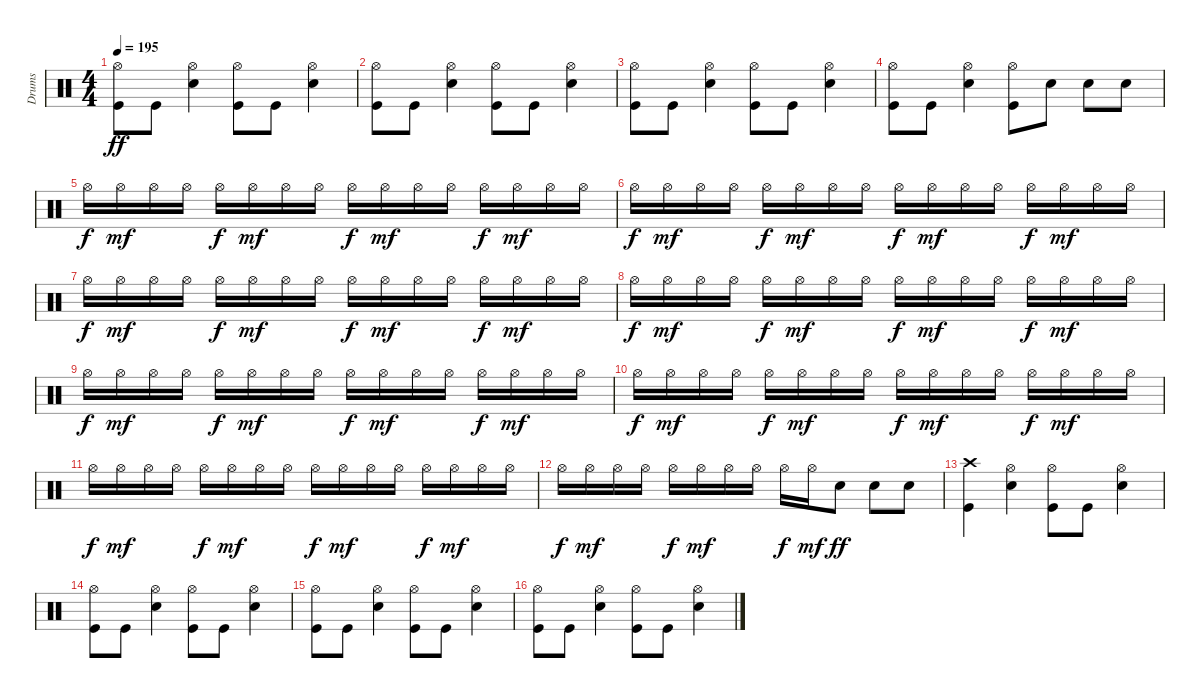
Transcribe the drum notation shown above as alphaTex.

\track ("Drums" "Drums") {instrument percussion}
\staff {score}
\articulation defaults
\ts (4 4)
\tempo 195
\clef neutral
\ks c
("Hi-Hat (open)" "Kick (hit)").8{dy ff} "Kick (hit)".8 ("Hi-Hat (open)" "Snare (hit) 2").4 ("Hi-Hat (open)" "Kick (hit)").8 "Kick (hit)".8 ("Hi-Hat (open)" "Snare (hit) 2").4 |
("Hi-Hat (open)" "Kick (hit)").8 "Kick (hit)".8 ("Hi-Hat (open)" "Snare (hit) 2").4 ("Hi-Hat (open)" "Kick (hit)").8 "Kick (hit)".8 ("Hi-Hat (open)" "Snare (hit) 2").4 |
("Hi-Hat (open)" "Kick (hit)").8 "Kick (hit)".8 ("Hi-Hat (open)" "Snare (hit) 2").4 ("Hi-Hat (open)" "Kick (hit)").8 "Kick (hit)".8 ("Hi-Hat (open)" "Snare (hit) 2").4 |
("Hi-Hat (open)" "Kick (hit)").8 "Kick (hit)".8 ("Hi-Hat (open)" "Snare (hit) 2").4 ("Hi-Hat (open)" "Kick (hit)").8 "Snare (hit) 2".8 "Snare (hit) 2".8 "Snare (hit) 2".8 |
"Hi-Hat (open)".16{dy f} "Hi-Hat (open)".16{dy mf} "Hi-Hat (open)".16 "Hi-Hat (open)".16 "Hi-Hat (open)".16{dy f} "Hi-Hat (open)".16{dy mf} "Hi-Hat (open)".16 "Hi-Hat (open)".16 "Hi-Hat (open)".16{dy f} "Hi-Hat (open)".16{dy mf} "Hi-Hat (open)".16 "Hi-Hat (open)".16 "Hi-Hat (open)".16{dy f} "Hi-Hat (open)".16{dy mf} "Hi-Hat (open)".16 "Hi-Hat (open)".16 |
"Hi-Hat (open)".16{dy f} "Hi-Hat (open)".16{dy mf} "Hi-Hat (open)".16 "Hi-Hat (open)".16 "Hi-Hat (open)".16{dy f} "Hi-Hat (open)".16{dy mf} "Hi-Hat (open)".16 "Hi-Hat (open)".16 "Hi-Hat (open)".16{dy f} "Hi-Hat (open)".16{dy mf} "Hi-Hat (open)".16 "Hi-Hat (open)".16 "Hi-Hat (open)".16{dy f} "Hi-Hat (open)".16{dy mf} "Hi-Hat (open)".16 "Hi-Hat (open)".16 |
"Hi-Hat (open)".16{dy f} "Hi-Hat (open)".16{dy mf} "Hi-Hat (open)".16 "Hi-Hat (open)".16 "Hi-Hat (open)".16{dy f} "Hi-Hat (open)".16{dy mf} "Hi-Hat (open)".16 "Hi-Hat (open)".16 "Hi-Hat (open)".16{dy f} "Hi-Hat (open)".16{dy mf} "Hi-Hat (open)".16 "Hi-Hat (open)".16 "Hi-Hat (open)".16{dy f} "Hi-Hat (open)".16{dy mf} "Hi-Hat (open)".16 "Hi-Hat (open)".16 |
"Hi-Hat (open)".16{dy f} "Hi-Hat (open)".16{dy mf} "Hi-Hat (open)".16 "Hi-Hat (open)".16 "Hi-Hat (open)".16{dy f} "Hi-Hat (open)".16{dy mf} "Hi-Hat (open)".16 "Hi-Hat (open)".16 "Hi-Hat (open)".16{dy f} "Hi-Hat (open)".16{dy mf} "Hi-Hat (open)".16 "Hi-Hat (open)".16 "Hi-Hat (open)".16{dy f} "Hi-Hat (open)".16{dy mf} "Hi-Hat (open)".16 "Hi-Hat (open)".16 |
"Hi-Hat (open)".16{dy f} "Hi-Hat (open)".16{dy mf} "Hi-Hat (open)".16 "Hi-Hat (open)".16 "Hi-Hat (open)".16{dy f} "Hi-Hat (open)".16{dy mf} "Hi-Hat (open)".16 "Hi-Hat (open)".16 "Hi-Hat (open)".16{dy f} "Hi-Hat (open)".16{dy mf} "Hi-Hat (open)".16 "Hi-Hat (open)".16 "Hi-Hat (open)".16{dy f} "Hi-Hat (open)".16{dy mf} "Hi-Hat (open)".16 "Hi-Hat (open)".16 |
"Hi-Hat (open)".16{dy f} "Hi-Hat (open)".16{dy mf} "Hi-Hat (open)".16 "Hi-Hat (open)".16 "Hi-Hat (open)".16{dy f} "Hi-Hat (open)".16{dy mf} "Hi-Hat (open)".16 "Hi-Hat (open)".16 "Hi-Hat (open)".16{dy f} "Hi-Hat (open)".16{dy mf} "Hi-Hat (open)".16 "Hi-Hat (open)".16 "Hi-Hat (open)".16{dy f} "Hi-Hat (open)".16{dy mf} "Hi-Hat (open)".16 "Hi-Hat (open)".16 |
"Hi-Hat (open)".16{dy f} "Hi-Hat (open)".16{dy mf} "Hi-Hat (open)".16 "Hi-Hat (open)".16 "Hi-Hat (open)".16{dy f} "Hi-Hat (open)".16{dy mf} "Hi-Hat (open)".16 "Hi-Hat (open)".16 "Hi-Hat (open)".16{dy f} "Hi-Hat (open)".16{dy mf} "Hi-Hat (open)".16 "Hi-Hat (open)".16 "Hi-Hat (open)".16{dy f} "Hi-Hat (open)".16{dy mf} "Hi-Hat (open)".16 "Hi-Hat (open)".16 |
"Hi-Hat (open)".16{dy f} "Hi-Hat (open)".16{dy mf} "Hi-Hat (open)".16 "Hi-Hat (open)".16 "Hi-Hat (open)".16{dy f} "Hi-Hat (open)".16{dy mf} "Hi-Hat (open)".16 "Hi-Hat (open)".16 "Hi-Hat (open)".16{dy f} "Hi-Hat (open)".16{dy mf} "Snare (hit) 2".8{dy ff} "Snare (hit) 2".8 "Snare (hit) 2".8 |
("Crash high (hit)" "Kick (hit)").4 ("Hi-Hat (open)" "Snare (hit) 2").4 ("Hi-Hat (open)" "Kick (hit)").8 "Kick (hit)".8 ("Hi-Hat (open)" "Snare (hit) 2").4 |
("Hi-Hat (open)" "Kick (hit)").8 "Kick (hit)".8 ("Hi-Hat (open)" "Snare (hit) 2").4 ("Hi-Hat (open)" "Kick (hit)").8 "Kick (hit)".8 ("Hi-Hat (open)" "Snare (hit) 2").4 |
("Hi-Hat (open)" "Kick (hit)").8 "Kick (hit)".8 ("Hi-Hat (open)" "Snare (hit) 2").4 ("Hi-Hat (open)" "Kick (hit)").8 "Kick (hit)".8 ("Hi-Hat (open)" "Snare (hit) 2").4 |
("Hi-Hat (open)" "Kick (hit)").8 "Kick (hit)".8 ("Hi-Hat (open)" "Snare (hit) 2").4 ("Hi-Hat (open)" "Kick (hit)").8 "Kick (hit)".8 ("Hi-Hat (open)" "Snare (hit) 2").4
